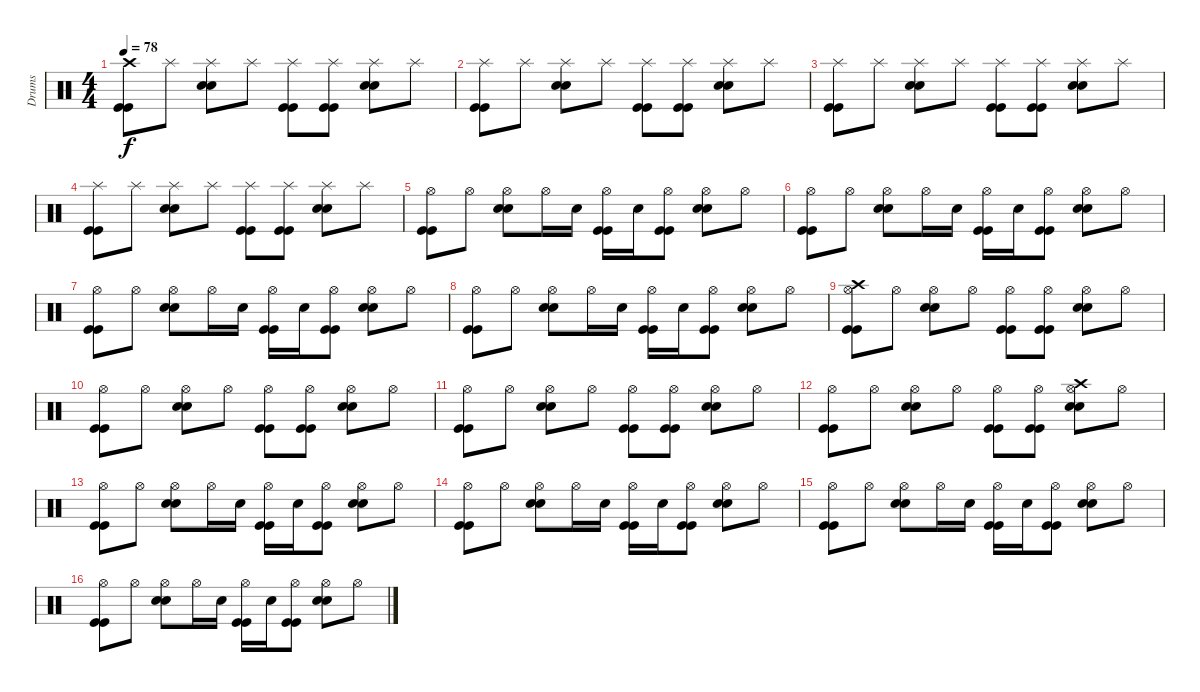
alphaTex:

\track ("Drums" "Drums") {instrument percussion}
\staff {score}
\articulation defaults
\ts (4 4)
\tempo 78
\clef neutral
\ks c
("Kick (hit)" "Kick (hit)" "Crash high (hit)").8{dy f} "Splash (hit)".8 ("Snare (hit) 2" "Snare (hit) 2" "Splash (hit)").8 "Splash (hit)".8 ("Kick (hit)" "Kick (hit)" "Splash (hit)").8 ("Kick (hit)" "Kick (hit)" "Splash (hit)").8 ("Snare (hit) 2" "Snare (hit) 2" "Splash (hit)").8 "Splash (hit)".8 |
("Kick (hit)" "Kick (hit)" "Splash (hit)").8 "Splash (hit)".8 ("Snare (hit) 2" "Snare (hit) 2" "Splash (hit)").8 "Splash (hit)".8 ("Kick (hit)" "Kick (hit)" "Splash (hit)").8 ("Kick (hit)" "Kick (hit)" "Splash (hit)").8 ("Snare (hit) 2" "Snare (hit) 2" "Splash (hit)").8 "Splash (hit)".8 |
("Kick (hit)" "Kick (hit)" "Splash (hit)").8 "Splash (hit)".8 ("Snare (hit) 2" "Snare (hit) 2" "Splash (hit)").8 "Splash (hit)".8 ("Kick (hit)" "Kick (hit)" "Splash (hit)").8 ("Kick (hit)" "Kick (hit)" "Splash (hit)").8 ("Snare (hit) 2" "Snare (hit) 2" "Splash (hit)").8 "Splash (hit)".8 |
("Kick (hit)" "Kick (hit)" "Splash (hit)").8 "Splash (hit)".8 ("Snare (hit) 2" "Snare (hit) 2" "Splash (hit)").8 "Splash (hit)".8 ("Kick (hit)" "Kick (hit)" "Splash (hit)").8 ("Kick (hit)" "Kick (hit)" "Splash (hit)").8 ("Snare (hit) 2" "Snare (hit) 2" "Splash (hit)").8 "Splash (hit)".8 |
("Kick (hit)" "Kick (hit)" "Hi-Hat (open)").8 "Hi-Hat (open)".8 ("Snare (hit) 2" "Snare (hit) 2" "Hi-Hat (open)").8 "Hi-Hat (open)".16 "Snare (hit) 2".16 ("Kick (hit)" "Kick (hit)" "Hi-Hat (open)").16 "Snare (hit) 2".16 ("Kick (hit)" "Kick (hit)" "Hi-Hat (open)").8 ("Snare (hit) 2" "Snare (hit) 2" "Hi-Hat (open)").8 "Hi-Hat (open)".8 |
("Kick (hit)" "Kick (hit)" "Hi-Hat (open)").8 "Hi-Hat (open)".8 ("Snare (hit) 2" "Snare (hit) 2" "Hi-Hat (open)").8 "Hi-Hat (open)".16 "Snare (hit) 2".16 ("Kick (hit)" "Kick (hit)" "Hi-Hat (open)").16 "Snare (hit) 2".16 ("Kick (hit)" "Kick (hit)" "Hi-Hat (open)").8 ("Snare (hit) 2" "Snare (hit) 2" "Hi-Hat (open)").8 "Hi-Hat (open)".8 |
("Kick (hit)" "Kick (hit)" "Hi-Hat (open)").8 "Hi-Hat (open)".8 ("Snare (hit) 2" "Snare (hit) 2" "Hi-Hat (open)").8 "Hi-Hat (open)".16 "Snare (hit) 2".16 ("Kick (hit)" "Kick (hit)" "Hi-Hat (open)").16 "Snare (hit) 2".16 ("Kick (hit)" "Kick (hit)" "Hi-Hat (open)").8 ("Snare (hit) 2" "Snare (hit) 2" "Hi-Hat (open)").8 "Hi-Hat (open)".8 |
("Kick (hit)" "Kick (hit)" "Hi-Hat (open)").8 "Hi-Hat (open)".8 ("Snare (hit) 2" "Snare (hit) 2" "Hi-Hat (open)").8 "Hi-Hat (open)".16 "Snare (hit) 2".16 ("Kick (hit)" "Kick (hit)" "Hi-Hat (open)").16 "Snare (hit) 2".16 ("Kick (hit)" "Kick (hit)" "Hi-Hat (open)").8 ("Snare (hit) 2" "Snare (hit) 2" "Hi-Hat (open)").8 "Hi-Hat (open)".8 |
("Kick (hit)" "Kick (hit)" "Hi-Hat (open)" "Crash high (hit)").8 "Hi-Hat (open)".8 ("Snare (hit) 2" "Snare (hit) 2" "Hi-Hat (open)").8 "Hi-Hat (open)".8 ("Kick (hit)" "Kick (hit)" "Hi-Hat (open)").8 ("Kick (hit)" "Kick (hit)" "Hi-Hat (open)").8 ("Snare (hit) 2" "Snare (hit) 2" "Hi-Hat (open)").8 "Hi-Hat (open)".8 |
("Kick (hit)" "Kick (hit)" "Hi-Hat (open)").8 "Hi-Hat (open)".8 ("Snare (hit) 2" "Snare (hit) 2" "Hi-Hat (open)").8 "Hi-Hat (open)".8 ("Kick (hit)" "Kick (hit)" "Hi-Hat (open)").8 ("Kick (hit)" "Kick (hit)" "Hi-Hat (open)").8 ("Snare (hit) 2" "Snare (hit) 2" "Hi-Hat (open)").8 "Hi-Hat (open)".8 |
("Kick (hit)" "Kick (hit)" "Hi-Hat (open)").8 "Hi-Hat (open)".8 ("Snare (hit) 2" "Snare (hit) 2" "Hi-Hat (open)").8 "Hi-Hat (open)".8 ("Kick (hit)" "Kick (hit)" "Hi-Hat (open)").8 ("Kick (hit)" "Kick (hit)" "Hi-Hat (open)").8 ("Snare (hit) 2" "Snare (hit) 2" "Hi-Hat (open)").8 "Hi-Hat (open)".8 |
("Kick (hit)" "Kick (hit)" "Hi-Hat (open)").8 "Hi-Hat (open)".8 ("Snare (hit) 2" "Snare (hit) 2" "Hi-Hat (open)").8 "Hi-Hat (open)".8 ("Kick (hit)" "Kick (hit)" "Hi-Hat (open)").8 ("Kick (hit)" "Kick (hit)" "Hi-Hat (open)").8 ("Snare (hit) 2" "Snare (hit) 2" "Hi-Hat (open)" "Crash high (hit)").8 "Hi-Hat (open)".8 |
("Kick (hit)" "Kick (hit)" "Hi-Hat (open)").8 "Hi-Hat (open)".8 ("Snare (hit) 2" "Snare (hit) 2" "Hi-Hat (open)").8 "Hi-Hat (open)".16 "Snare (hit) 2".16 ("Kick (hit)" "Kick (hit)" "Hi-Hat (open)").16 "Snare (hit) 2".16 ("Kick (hit)" "Kick (hit)" "Hi-Hat (open)").8 ("Snare (hit) 2" "Snare (hit) 2" "Hi-Hat (open)").8 "Hi-Hat (open)".8 |
("Kick (hit)" "Kick (hit)" "Hi-Hat (open)").8 "Hi-Hat (open)".8 ("Snare (hit) 2" "Snare (hit) 2" "Hi-Hat (open)").8 "Hi-Hat (open)".16 "Snare (hit) 2".16 ("Kick (hit)" "Kick (hit)" "Hi-Hat (open)").16 "Snare (hit) 2".16 ("Kick (hit)" "Kick (hit)" "Hi-Hat (open)").8 ("Snare (hit) 2" "Snare (hit) 2" "Hi-Hat (open)").8 "Hi-Hat (open)".8 |
("Kick (hit)" "Kick (hit)" "Hi-Hat (open)").8 "Hi-Hat (open)".8 ("Snare (hit) 2" "Snare (hit) 2" "Hi-Hat (open)").8 "Hi-Hat (open)".16 "Snare (hit) 2".16 ("Kick (hit)" "Kick (hit)" "Hi-Hat (open)").16 "Snare (hit) 2".16 ("Kick (hit)" "Kick (hit)" "Hi-Hat (open)").8 ("Snare (hit) 2" "Snare (hit) 2" "Hi-Hat (open)").8 "Hi-Hat (open)".8 |
("Kick (hit)" "Kick (hit)" "Hi-Hat (open)").8 "Hi-Hat (open)".8 ("Snare (hit) 2" "Snare (hit) 2" "Hi-Hat (open)").8 "Hi-Hat (open)".16 "Snare (hit) 2".16 ("Kick (hit)" "Kick (hit)" "Hi-Hat (open)").16 "Snare (hit) 2".16 ("Kick (hit)" "Kick (hit)" "Hi-Hat (open)").8 ("Snare (hit) 2" "Snare (hit) 2" "Hi-Hat (open)").8 "Hi-Hat (open)".8
